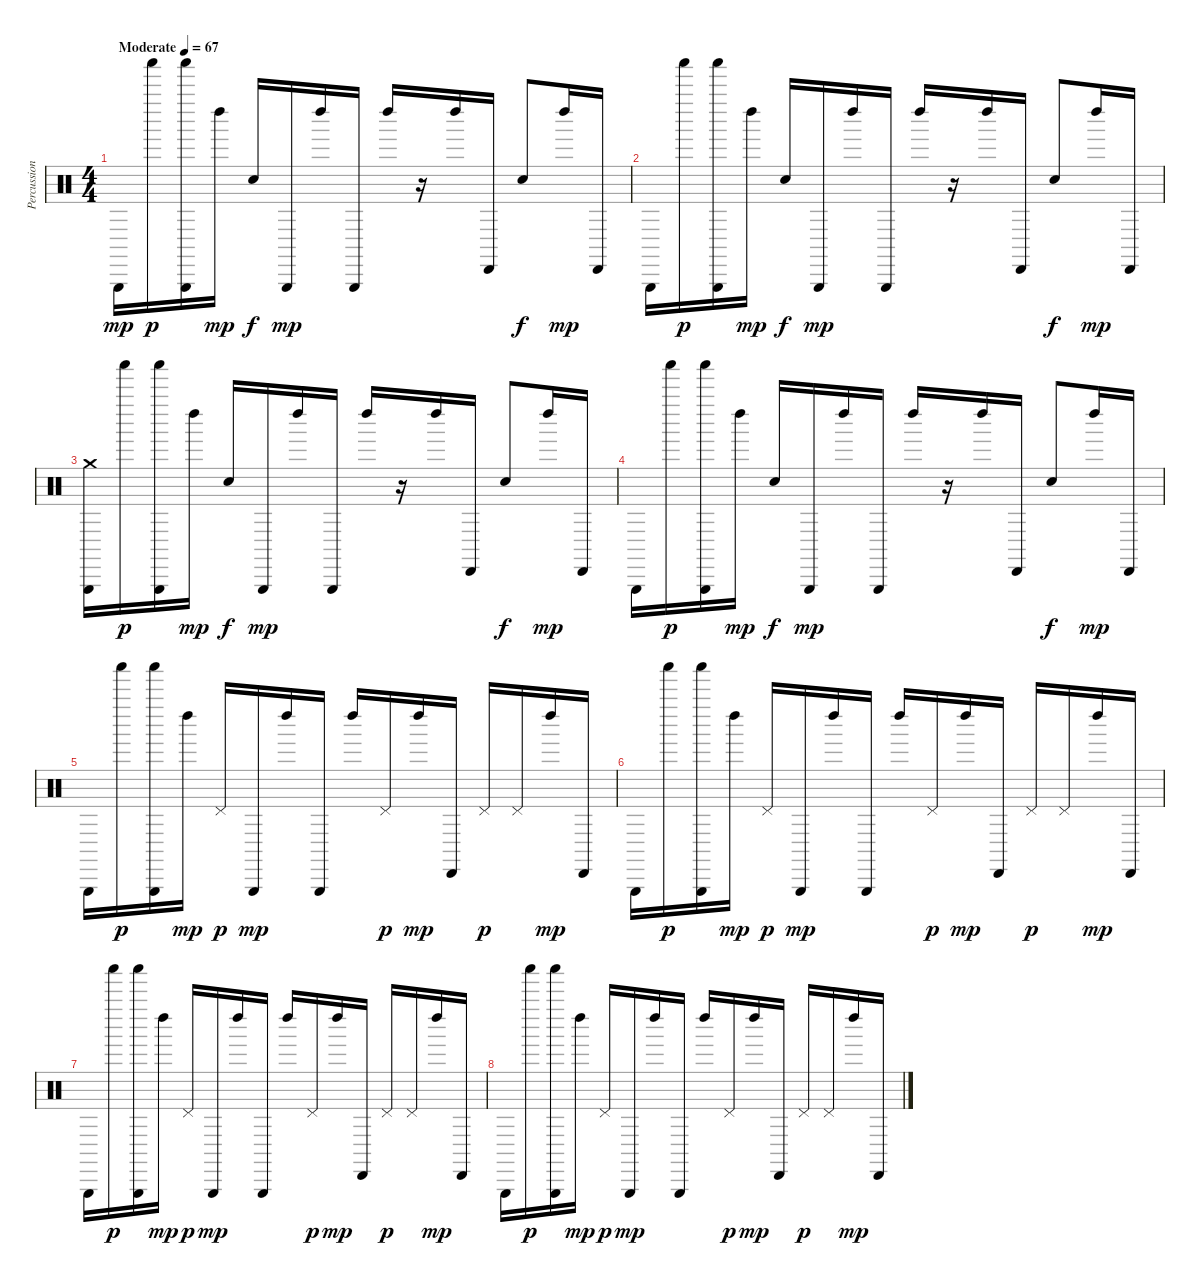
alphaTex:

\track ("Percussion" "Percussion") {instrument percussion}
\staff {score}
\articulation defaults
\ts (4 4)
\tempo (67 "Moderate")
\clef neutral
\ks c "Triangle (hit)".16{dy mp} "Shaker (hit)".16{dy p}
("Triangle (hit)" "Shaker (hit)").16 "Left Maraca (hit)".16{dy mp} "Snare (hit) 2".16{dy f} "Triangle (hit)".16{dy mp} "Left Maraca (hit)".16 "Triangle (hit)".16 "Left Maraca (hit)".16 r.16 "Left Maraca (hit)".16 "Cabasa (hit)".16 "Snare (hit) 2".8{dy f} "Left Maraca (hit)".16{dy mp} "Cabasa (hit)".16 |
"Triangle (hit)".16 "Shaker (hit)".16{dy p} ("Triangle (hit)" "Shaker (hit)").16 "Left Maraca (hit)".16{dy mp} "Snare (hit) 2".16{dy f} "Triangle (hit)".16{dy mp} "Left Maraca (hit)".16 "Triangle (hit)".16 "Left Maraca (hit)".16 r.16 "Left Maraca (hit)".16 "Cabasa (hit)".16 "Snare (hit) 2".8{dy f} "Left Maraca (hit)".16{dy mp} "Cabasa (hit)".16 |
("Crash medium (hit)" "Triangle (hit)").16 "Shaker (hit)".16{dy p} ("Triangle (hit)" "Shaker (hit)").16 "Left Maraca (hit)".16{dy mp} "Snare (hit) 2".16{dy f} "Triangle (hit)".16{dy mp} "Left Maraca (hit)".16 "Triangle (hit)".16 "Left Maraca (hit)".16 r.16 "Left Maraca (hit)".16 "Cabasa (hit)".16 "Snare (hit) 2".8{dy f} "Left Maraca (hit)".16{dy mp} "Cabasa (hit)".16 |
"Triangle (hit)".16 "Shaker (hit)".16{dy p} ("Triangle (hit)" "Shaker (hit)").16 "Left Maraca (hit)".16{dy mp} "Snare (hit) 2".16{dy f} "Triangle (hit)".16{dy mp} "Left Maraca (hit)".16 "Triangle (hit)".16 "Left Maraca (hit)".16 r.16 "Left Maraca (hit)".16 "Cabasa (hit)".16 "Snare (hit) 2".8{dy f} "Left Maraca (hit)".16{dy mp} "Cabasa (hit)".16 |
"Triangle (hit)".16 "Shaker (hit)".16{dy p} ("Triangle (hit)" "Shaker (hit)").16 "Left Maraca (hit)".16{dy mp} "Pedal Hi-Hat (hit)".16{dy p} "Triangle (hit)".16{dy mp} "Left Maraca (hit)".16 "Triangle (hit)".16 "Left Maraca (hit)".16 "Pedal Hi-Hat (hit)".16{dy p} "Left Maraca (hit)".16{dy mp} "Cabasa (hit)".16 "Pedal Hi-Hat (hit)".16{dy p} "Pedal Hi-Hat (hit)".16 "Left Maraca (hit)".16{dy mp} "Cabasa (hit)".16 |
"Triangle (hit)".16 "Shaker (hit)".16{dy p} ("Triangle (hit)" "Shaker (hit)").16 "Left Maraca (hit)".16{dy mp} "Pedal Hi-Hat (hit)".16{dy p} "Triangle (hit)".16{dy mp} "Left Maraca (hit)".16 "Triangle (hit)".16 "Left Maraca (hit)".16 "Pedal Hi-Hat (hit)".16{dy p} "Left Maraca (hit)".16{dy mp} "Cabasa (hit)".16 "Pedal Hi-Hat (hit)".16{dy p} "Pedal Hi-Hat (hit)".16 "Left Maraca (hit)".16{dy mp} "Cabasa (hit)".16 |
"Triangle (hit)".16 "Shaker (hit)".16{dy p} ("Triangle (hit)" "Shaker (hit)").16 "Left Maraca (hit)".16{dy mp} "Pedal Hi-Hat (hit)".16{dy p} "Triangle (hit)".16{dy mp} "Left Maraca (hit)".16 "Triangle (hit)".16 "Left Maraca (hit)".16 "Pedal Hi-Hat (hit)".16{dy p} "Left Maraca (hit)".16{dy mp} "Cabasa (hit)".16 "Pedal Hi-Hat (hit)".16{dy p} "Pedal Hi-Hat (hit)".16 "Left Maraca (hit)".16{dy mp} "Cabasa (hit)".16 |
"Triangle (hit)".16 "Shaker (hit)".16{dy p} ("Triangle (hit)" "Shaker (hit)").16 "Left Maraca (hit)".16{dy mp} "Pedal Hi-Hat (hit)".16{dy p} "Triangle (hit)".16{dy mp} "Left Maraca (hit)".16 "Triangle (hit)".16 "Left Maraca (hit)".16 "Pedal Hi-Hat (hit)".16{dy p} "Left Maraca (hit)".16{dy mp} "Cabasa (hit)".16 "Pedal Hi-Hat (hit)".16{dy p} "Pedal Hi-Hat (hit)".16 "Left Maraca (hit)".16{dy mp} "Cabasa (hit)".16
